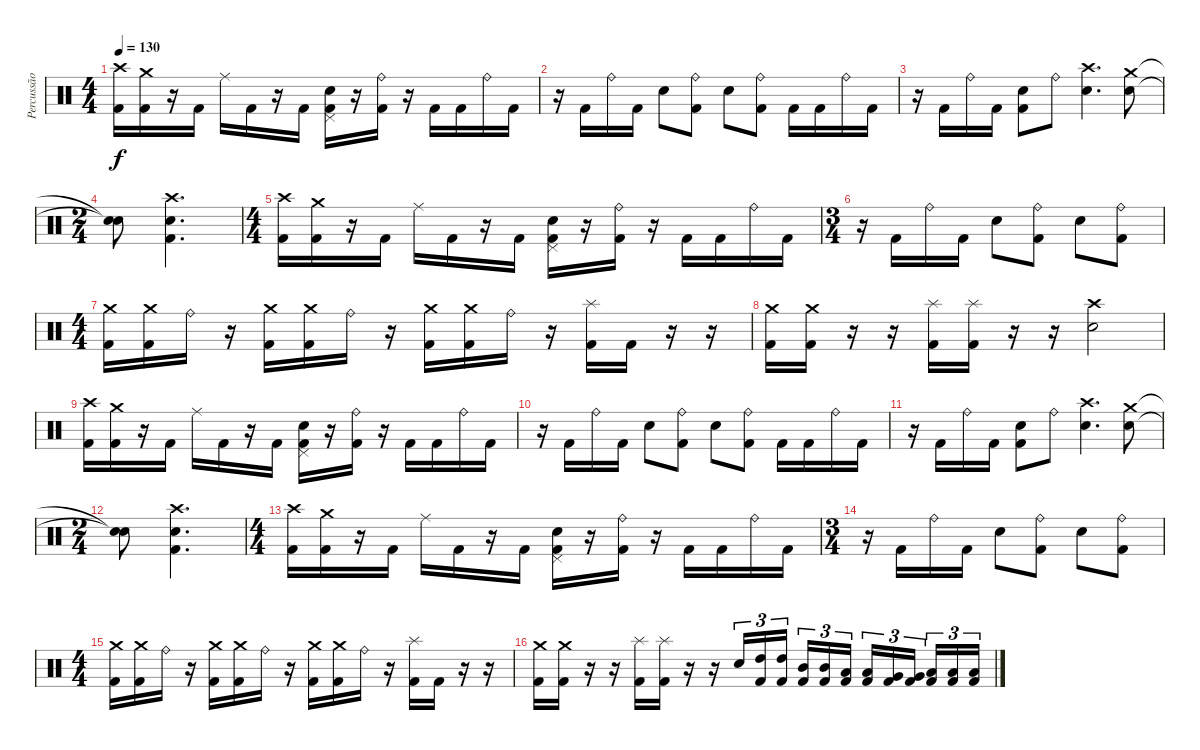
\track ("Percussão" "Percussão") {instrument percussion}
\staff {score}
\articulation defaults
\ts (4 4)
\tempo 130
\clef neutral
\ks c
("Crash high (hit)" "Kick (hit) 2").16{dy f} ("Crash medium (hit)" "Kick (hit) 2").16 r.16 "Kick (hit) 2".16 "Ride (middle)".16 "Kick (hit) 2".16 r.16 "Kick (hit) 2".16 ("Pedal Hi-Hat (hit)" "Electric Snare (hit)" "Kick (hit) 2").16 r.16 ("Ride (bell)" "Kick (hit) 2").16 r.16 "Kick (hit) 2".16 "Kick (hit) 2".16 "Ride (bell)".16 "Kick (hit) 2".16 |
r.16 "Kick (hit) 2".16 "Ride (bell)".16 "Kick (hit) 2".16 "Electric Snare (hit)".8 ("Ride (bell)" "Kick (hit) 2").8 "Electric Snare (hit)".8 ("Ride (bell)" "Kick (hit) 2").8 "Kick (hit) 2".16 "Kick (hit) 2".16 "Ride (bell)".16 "Kick (hit) 2".16 |
r.16 "Kick (hit) 2".16 "Ride (bell)".16 "Kick (hit) 2".16 ("Electric Snare (hit)" "Kick (hit) 2").8 "Ride (bell)".8 ("Crash high (hit)" "Electric Snare (hit)").4{d} ("Crash medium (hit)" "Electric Snare (hit)").8 |
\ts (2 4)
("Snare (hit)"{t} "Snare (hit)"{t}).8 ("Crash high (hit)" "Electric Snare (hit)" "Kick (hit) 2").4{d} |
\ts (4 4)
("Crash high (hit)" "Kick (hit) 2").16 ("Crash medium (hit)" "Kick (hit) 2").16 r.16 "Kick (hit) 2".16 "Ride (middle)".16 "Kick (hit) 2".16 r.16 "Kick (hit) 2".16 ("Pedal Hi-Hat (hit)" "Electric Snare (hit)" "Kick (hit) 2").16 r.16 ("Ride (bell)" "Kick (hit) 2").16 r.16 "Kick (hit) 2".16 "Kick (hit) 2".16 "Ride (bell)".16 "Kick (hit) 2".16 |
\ts (3 4)
r.16 "Kick (hit) 2".16 "Ride (bell)".16 "Kick (hit) 2".16 "Electric Snare (hit)".8 ("Ride (bell)" "Kick (hit) 2").8 "Electric Snare (hit)".8 ("Ride (bell)" "Kick (hit) 2").8 |
\ts (4 4)
("Crash medium (hit)" "Kick (hit) 2").16 ("Crash medium (hit)" "Kick (hit) 2").16 "Ride (bell)".16 r.16 ("Crash medium (hit)" "Kick (hit) 2").16 ("Crash medium (hit)" "Kick (hit) 2").16 "Ride (bell)".16 r.16 ("Crash medium (hit)" "Kick (hit) 2").16 ("Crash medium (hit)" "Kick (hit) 2").16 "Ride (bell)".16 r.16 ("Splash (hit)" "Kick (hit) 2").16 "Kick (hit) 2".16 r.16 r.16 |
("Crash medium (hit)" "Kick (hit) 2").16 ("Crash medium (hit)" "Kick (hit) 2").16 r.16 r.16 ("Splash (hit)" "Kick (hit) 2").16 ("Splash (hit)" "Kick (hit) 2").16 r.16 r.16 ("Crash high (hit)" "Electric Snare (hit)").2 |
("Crash high (hit)" "Kick (hit) 2").16 ("Crash medium (hit)" "Kick (hit) 2").16 r.16 "Kick (hit) 2".16 "Ride (middle)".16 "Kick (hit) 2".16 r.16 "Kick (hit) 2".16 ("Pedal Hi-Hat (hit)" "Electric Snare (hit)" "Kick (hit) 2").16 r.16 ("Ride (bell)" "Kick (hit) 2").16 r.16 "Kick (hit) 2".16 "Kick (hit) 2".16 "Ride (bell)".16 "Kick (hit) 2".16 |
r.16 "Kick (hit) 2".16 "Ride (bell)".16 "Kick (hit) 2".16 "Electric Snare (hit)".8 ("Ride (bell)" "Kick (hit) 2").8 "Electric Snare (hit)".8 ("Ride (bell)" "Kick (hit) 2").8 "Kick (hit) 2".16 "Kick (hit) 2".16 "Ride (bell)".16 "Kick (hit) 2".16 |
r.16 "Kick (hit) 2".16 "Ride (bell)".16 "Kick (hit) 2".16 ("Electric Snare (hit)" "Kick (hit) 2").8 "Ride (bell)".8 ("Crash high (hit)" "Electric Snare (hit)").4{d} ("Crash medium (hit)" "Electric Snare (hit)").8 |
\ts (2 4)
("Snare (hit)"{t} "Snare (hit)"{t}).8 ("Crash high (hit)" "Electric Snare (hit)" "Kick (hit) 2").4{d} |
\ts (4 4)
("Crash high (hit)" "Kick (hit) 2").16 ("Crash medium (hit)" "Kick (hit) 2").16 r.16 "Kick (hit) 2".16 "Ride (middle)".16 "Kick (hit) 2".16 r.16 "Kick (hit) 2".16 ("Pedal Hi-Hat (hit)" "Electric Snare (hit)" "Kick (hit) 2").16 r.16 ("Ride (bell)" "Kick (hit) 2").16 r.16 "Kick (hit) 2".16 "Kick (hit) 2".16 "Ride (bell)".16 "Kick (hit) 2".16 |
\ts (3 4)
r.16 "Kick (hit) 2".16 "Ride (bell)".16 "Kick (hit) 2".16 "Electric Snare (hit)".8 ("Ride (bell)" "Kick (hit) 2").8 "Electric Snare (hit)".8 ("Ride (bell)" "Kick (hit) 2").8 |
\ts (4 4)
("Crash medium (hit)" "Kick (hit) 2").16 ("Crash medium (hit)" "Kick (hit) 2").16 "Ride (bell)".16 r.16 ("Crash medium (hit)" "Kick (hit) 2").16 ("Crash medium (hit)" "Kick (hit) 2").16 "Ride (bell)".16 r.16 ("Crash medium (hit)" "Kick (hit) 2").16 ("Crash medium (hit)" "Kick (hit) 2").16 "Ride (bell)".16 r.16 ("Splash (hit)" "Kick (hit) 2").16 "Kick (hit) 2".16 r.16 r.16 |
("Crash medium (hit)" "Kick (hit) 2").16 ("Crash medium (hit)" "Kick (hit) 2").16 r.16 r.16 ("Splash (hit)" "Kick (hit) 2").16 ("Splash (hit)" "Kick (hit) 2").16 r.16 r.16 "Electric Snare (hit)".16{tu (3 2)} ("High Tom (hit)" "Kick (hit) 2").16{tu (3 2)} ("High Tom (hit)" "Kick (hit) 2").16{tu (3 2) beam splitsecondary} ("Mid Tom (hit)" "Kick (hit) 2").16{tu (3 2)} ("Mid Tom (hit)" "Kick (hit) 2").16{tu (3 2)} ("Low Tom (hit)" "Kick (hit) 2").16{tu (3 2)} ("Low Tom (hit)" "Kick (hit) 2").16{tu (3 2)} ("Very Low Tom (hit)" "Kick (hit) 2").16{tu (3 2)} ("Very Low Tom (hit)" "Kick (hit) 2").16{tu (3 2) beam splitsecondary} ("Low Floor Tom (hit)" "Kick (hit) 2").16{tu (3 2)} ("Low Floor Tom (hit)" "Kick (hit) 2").16{tu (3 2)} ("Low Floor Tom (hit)" "Kick (hit) 2").16{tu (3 2)}
